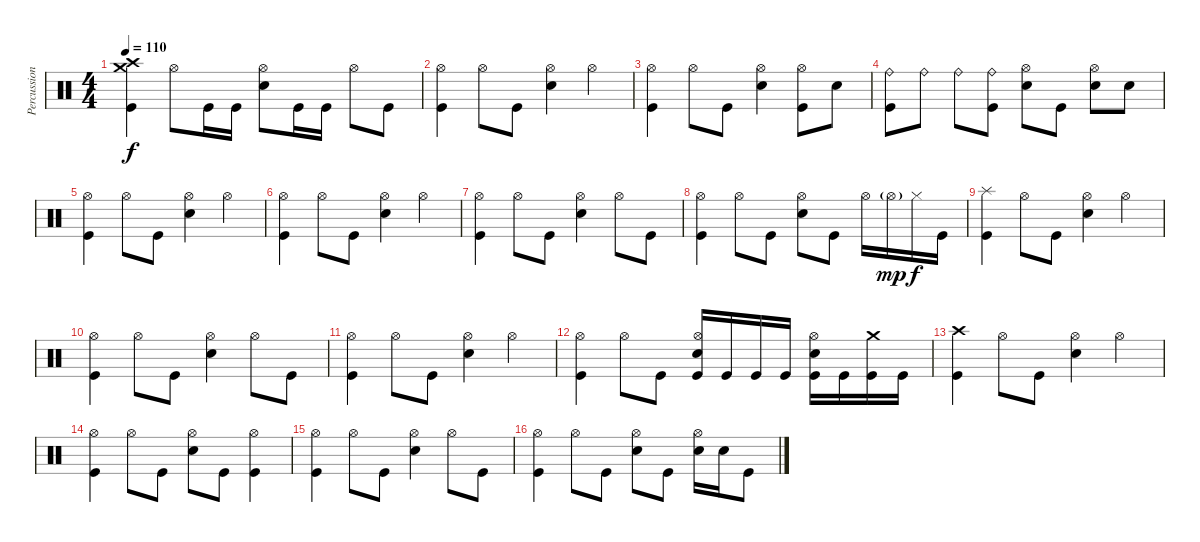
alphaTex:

\track ("Percussion" "Percussion") {instrument percussion}
\staff {score}
\articulation defaults
\ts (4 4)
\tempo 110
\clef neutral
\ks c
("Crash high (hit)" "Crash medium (hit)" "Kick (hit)").4{dy f} "Hi-Hat (open)".8 "Kick (hit)".16 "Kick (hit)".16 ("Hi-Hat (open)" "Snare (hit) 2").8 "Kick (hit)".16 "Kick (hit)".16 "Hi-Hat (open)".8 "Kick (hit)".8 |
("Hi-Hat (open)" "Kick (hit)").4 "Hi-Hat (open)".8 "Kick (hit)".8 ("Hi-Hat (open)" "Snare (hit) 2").4 "Hi-Hat (open)".4 |
("Hi-Hat (open)" "Kick (hit)").4 "Hi-Hat (open)".8 "Kick (hit)".8 ("Hi-Hat (open)" "Snare (hit) 2").4 ("Hi-Hat (open)" "Kick (hit)").8 "Snare (hit) 2".8 |
("Ride (bell)" "Kick (hit)").8 "Ride (bell)".8 "Ride (bell)".8 ("Ride (bell)" "Kick (hit)").8 ("Hi-Hat (open)" "Snare (hit) 2").8 "Kick (hit)".8 ("Hi-Hat (open)" "Snare (hit) 2").8 "Snare (hit) 2".8 |
("Hi-Hat (open)" "Kick (hit)").4 "Hi-Hat (open)".8 "Kick (hit)".8 ("Hi-Hat (open)" "Snare (hit) 2").4 "Hi-Hat (open)".4 |
("Hi-Hat (open)" "Kick (hit)").4 "Hi-Hat (open)".8 "Kick (hit)".8 ("Hi-Hat (open)" "Snare (hit) 2").4 "Hi-Hat (open)".4 |
("Hi-Hat (open)" "Kick (hit)").4 "Hi-Hat (open)".8 "Kick (hit)".8 ("Hi-Hat (open)" "Snare (hit) 2").4 "Hi-Hat (open)".8 "Kick (hit)".8 |
("Hi-Hat (open)" "Kick (hit)").4 "Hi-Hat (open)".8 "Kick (hit)".8 ("Hi-Hat (open)" "Snare (hit) 2").8 "Kick (hit)".8 "Hi-Hat (open)".16 "Hi-Hat (open)"{g}.16{dy mp} "Hi-Hat (closed)".16{dy f} "Kick (hit)".16 |
("Splash (hit)" "Kick (hit)").4 "Hi-Hat (open)".8 "Kick (hit)".8 ("Hi-Hat (open)" "Snare (hit) 2").4 "Hi-Hat (open)".4 |
("Hi-Hat (open)" "Kick (hit)").4 "Hi-Hat (open)".8 "Kick (hit)".8 ("Hi-Hat (open)" "Snare (hit) 2").4 "Hi-Hat (open)".8 "Kick (hit)".8 |
("Hi-Hat (open)" "Kick (hit)").4 "Hi-Hat (open)".8 "Kick (hit)".8 ("Hi-Hat (open)" "Snare (hit) 2").4 "Hi-Hat (open)".4 |
("Hi-Hat (open)" "Kick (hit)").4 "Hi-Hat (open)".8 "Kick (hit)".8 ("Hi-Hat (open)" "Snare (hit) 2" "Kick (hit)").16 "Kick (hit)".16 "Kick (hit)".16 "Kick (hit)".16 ("Hi-Hat (open)" "Snare (hit) 2" "Kick (hit)").16 "Kick (hit)".16 ("Crash medium (hit)" "Kick (hit)").16 "Kick (hit)".16 |
("Crash high (hit)" "Kick (hit)").4 "Hi-Hat (open)".8 "Kick (hit)".8 ("Hi-Hat (open)" "Snare (hit) 2").4 "Hi-Hat (open)".4 |
("Hi-Hat (open)" "Kick (hit)").4 "Hi-Hat (open)".8 "Kick (hit)".8 ("Hi-Hat (open)" "Snare (hit) 2").8 "Kick (hit)".8 ("Hi-Hat (open)" "Kick (hit)").4 |
("Hi-Hat (open)" "Kick (hit)").4 "Hi-Hat (open)".8 "Kick (hit)".8 ("Hi-Hat (open)" "Snare (hit) 2").4 "Hi-Hat (open)".8 "Kick (hit)".8 |
("Hi-Hat (open)" "Kick (hit)").4 "Hi-Hat (open)".8 "Kick (hit)".8 ("Hi-Hat (open)" "Snare (hit) 2").8 "Kick (hit)".8 ("Hi-Hat (open)" "Snare (hit) 2").16 "Snare (hit) 2".16 "Kick (hit)".8
